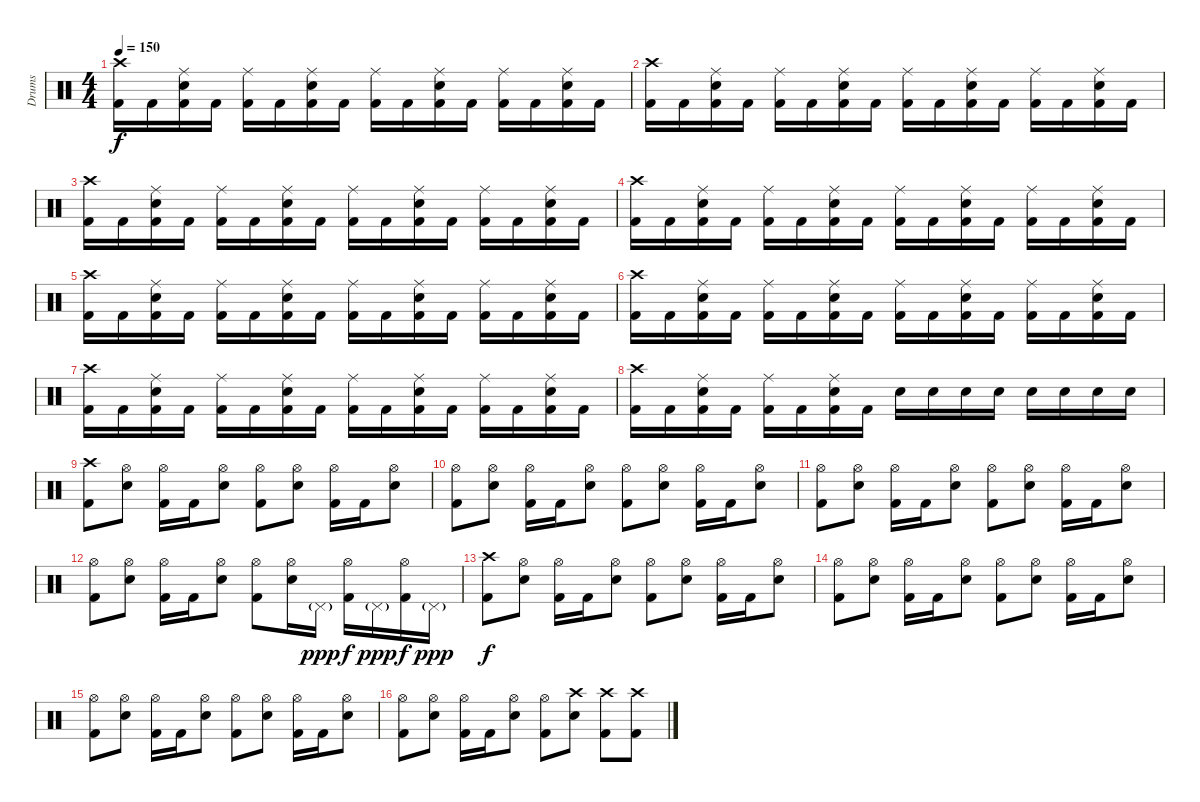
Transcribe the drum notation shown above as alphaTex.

\track ("Drums" "Drums") {instrument percussion}
\staff {score}
\articulation defaults
\ts (4 4)
\tempo 150
\clef neutral
\ks c
("Crash high (hit)" "Kick (hit) 2").16{dy f} "Kick (hit) 2".16 ("Ride (middle)" "Electric Snare (hit)" "Kick (hit) 2").16 "Kick (hit) 2".16 ("Ride (middle)" "Kick (hit) 2").16 "Kick (hit) 2".16 ("Ride (middle)" "Electric Snare (hit)" "Kick (hit) 2").16 "Kick (hit) 2".16 ("Ride (middle)" "Kick (hit) 2").16 "Kick (hit) 2".16 ("Ride (middle)" "Electric Snare (hit)" "Kick (hit) 2").16 "Kick (hit) 2".16 ("Ride (middle)" "Kick (hit) 2").16 "Kick (hit) 2".16 ("Ride (middle)" "Electric Snare (hit)" "Kick (hit) 2").16 "Kick (hit) 2".16 |
("Crash high (hit)" "Kick (hit) 2").16 "Kick (hit) 2".16 ("Ride (middle)" "Electric Snare (hit)" "Kick (hit) 2").16 "Kick (hit) 2".16 ("Ride (middle)" "Kick (hit) 2").16 "Kick (hit) 2".16 ("Ride (middle)" "Electric Snare (hit)" "Kick (hit) 2").16 "Kick (hit) 2".16 ("Ride (middle)" "Kick (hit) 2").16 "Kick (hit) 2".16 ("Ride (middle)" "Electric Snare (hit)" "Kick (hit) 2").16 "Kick (hit) 2".16 ("Ride (middle)" "Kick (hit) 2").16 "Kick (hit) 2".16 ("Ride (middle)" "Electric Snare (hit)" "Kick (hit) 2").16 "Kick (hit) 2".16 |
("Crash high (hit)" "Kick (hit) 2").16 "Kick (hit) 2".16 ("Ride (middle)" "Electric Snare (hit)" "Kick (hit) 2").16 "Kick (hit) 2".16 ("Ride (middle)" "Kick (hit) 2").16 "Kick (hit) 2".16 ("Ride (middle)" "Electric Snare (hit)" "Kick (hit) 2").16 "Kick (hit) 2".16 ("Ride (middle)" "Kick (hit) 2").16 "Kick (hit) 2".16 ("Ride (middle)" "Electric Snare (hit)" "Kick (hit) 2").16 "Kick (hit) 2".16 ("Ride (middle)" "Kick (hit) 2").16 "Kick (hit) 2".16 ("Ride (middle)" "Electric Snare (hit)" "Kick (hit) 2").16 "Kick (hit) 2".16 |
("Crash high (hit)" "Kick (hit) 2").16 "Kick (hit) 2".16 ("Ride (middle)" "Electric Snare (hit)" "Kick (hit) 2").16 "Kick (hit) 2".16 ("Ride (middle)" "Kick (hit) 2").16 "Kick (hit) 2".16 ("Ride (middle)" "Electric Snare (hit)" "Kick (hit) 2").16 "Kick (hit) 2".16 ("Ride (middle)" "Kick (hit) 2").16 "Kick (hit) 2".16 ("Ride (middle)" "Electric Snare (hit)" "Kick (hit) 2").16 "Kick (hit) 2".16 ("Ride (middle)" "Kick (hit) 2").16 "Kick (hit) 2".16 ("Ride (middle)" "Electric Snare (hit)" "Kick (hit) 2").16 "Kick (hit) 2".16 |
("Crash high (hit)" "Kick (hit) 2").16 "Kick (hit) 2".16 ("Ride (middle)" "Electric Snare (hit)" "Kick (hit) 2").16 "Kick (hit) 2".16 ("Ride (middle)" "Kick (hit) 2").16 "Kick (hit) 2".16 ("Ride (middle)" "Electric Snare (hit)" "Kick (hit) 2").16 "Kick (hit) 2".16 ("Ride (middle)" "Kick (hit) 2").16 "Kick (hit) 2".16 ("Ride (middle)" "Electric Snare (hit)" "Kick (hit) 2").16 "Kick (hit) 2".16 ("Ride (middle)" "Kick (hit) 2").16 "Kick (hit) 2".16 ("Ride (middle)" "Electric Snare (hit)" "Kick (hit) 2").16 "Kick (hit) 2".16 |
("Crash high (hit)" "Kick (hit) 2").16 "Kick (hit) 2".16 ("Ride (middle)" "Electric Snare (hit)" "Kick (hit) 2").16 "Kick (hit) 2".16 ("Ride (middle)" "Kick (hit) 2").16 "Kick (hit) 2".16 ("Ride (middle)" "Electric Snare (hit)" "Kick (hit) 2").16 "Kick (hit) 2".16 ("Ride (middle)" "Kick (hit) 2").16 "Kick (hit) 2".16 ("Ride (middle)" "Electric Snare (hit)" "Kick (hit) 2").16 "Kick (hit) 2".16 ("Ride (middle)" "Kick (hit) 2").16 "Kick (hit) 2".16 ("Ride (middle)" "Electric Snare (hit)" "Kick (hit) 2").16 "Kick (hit) 2".16 |
("Crash high (hit)" "Kick (hit) 2").16 "Kick (hit) 2".16 ("Ride (middle)" "Electric Snare (hit)" "Kick (hit) 2").16 "Kick (hit) 2".16 ("Ride (middle)" "Kick (hit) 2").16 "Kick (hit) 2".16 ("Ride (middle)" "Electric Snare (hit)" "Kick (hit) 2").16 "Kick (hit) 2".16 ("Ride (middle)" "Kick (hit) 2").16 "Kick (hit) 2".16 ("Ride (middle)" "Electric Snare (hit)" "Kick (hit) 2").16 "Kick (hit) 2".16 ("Ride (middle)" "Kick (hit) 2").16 "Kick (hit) 2".16 ("Ride (middle)" "Electric Snare (hit)" "Kick (hit) 2").16 "Kick (hit) 2".16 |
("Crash high (hit)" "Kick (hit) 2").16 "Kick (hit) 2".16 ("Ride (middle)" "Electric Snare (hit)" "Kick (hit) 2").16 "Kick (hit) 2".16 ("Ride (middle)" "Kick (hit) 2").16 "Kick (hit) 2".16 ("Ride (middle)" "Electric Snare (hit)" "Kick (hit) 2").16 "Kick (hit) 2".16 "Electric Snare (hit)".16 "Electric Snare (hit)".16 "Electric Snare (hit)".16 "Electric Snare (hit)".16 "Electric Snare (hit)".16 "Electric Snare (hit)".16 "Electric Snare (hit)".16 "Electric Snare (hit)".16 |
("Crash high (hit)" "Kick (hit) 2").8 ("Hi-Hat (open)" "Electric Snare (hit)").8 ("Hi-Hat (open)" "Kick (hit) 2").16 "Kick (hit) 2".16 ("Hi-Hat (open)" "Electric Snare (hit)").8 ("Hi-Hat (open)" "Kick (hit) 2").8 ("Hi-Hat (open)" "Electric Snare (hit)").8 ("Hi-Hat (open)" "Kick (hit) 2").16 "Kick (hit) 2".16 ("Hi-Hat (open)" "Electric Snare (hit)").8 |
("Hi-Hat (open)" "Kick (hit) 2").8 ("Hi-Hat (open)" "Electric Snare (hit)").8 ("Hi-Hat (open)" "Kick (hit) 2").16 "Kick (hit) 2".16 ("Hi-Hat (open)" "Electric Snare (hit)").8 ("Hi-Hat (open)" "Kick (hit) 2").8 ("Hi-Hat (open)" "Electric Snare (hit)").8 ("Hi-Hat (open)" "Kick (hit) 2").16 "Kick (hit) 2".16 ("Hi-Hat (open)" "Electric Snare (hit)").8 |
("Hi-Hat (open)" "Kick (hit) 2").8 ("Hi-Hat (open)" "Electric Snare (hit)").8 ("Hi-Hat (open)" "Kick (hit) 2").16 "Kick (hit) 2".16 ("Hi-Hat (open)" "Electric Snare (hit)").8 ("Hi-Hat (open)" "Kick (hit) 2").8 ("Hi-Hat (open)" "Electric Snare (hit)").8 ("Hi-Hat (open)" "Kick (hit) 2").16 "Kick (hit) 2".16 ("Hi-Hat (open)" "Electric Snare (hit)").8 |
("Hi-Hat (open)" "Kick (hit) 2").8 ("Hi-Hat (open)" "Electric Snare (hit)").8 ("Hi-Hat (open)" "Kick (hit) 2").16 "Kick (hit) 2".16 ("Hi-Hat (open)" "Electric Snare (hit)").8 ("Hi-Hat (open)" "Kick (hit) 2").8 ("Hi-Hat (open)" "Electric Snare (hit)").16 "Pedal Hi-Hat (hit)"{g}.16{dy ppp} ("Hi-Hat (open)" "Kick (hit) 2").16{dy f} "Pedal Hi-Hat (hit)"{g}.16{dy ppp} ("Hi-Hat (open)" "Kick (hit) 2").16{dy f} "Pedal Hi-Hat (hit)"{g}.16{dy ppp} |
("Crash high (hit)" "Kick (hit) 2").8{dy f} ("Hi-Hat (open)" "Electric Snare (hit)").8 ("Hi-Hat (open)" "Kick (hit) 2").16 "Kick (hit) 2".16 ("Hi-Hat (open)" "Electric Snare (hit)").8 ("Hi-Hat (open)" "Kick (hit) 2").8 ("Hi-Hat (open)" "Electric Snare (hit)").8 ("Hi-Hat (open)" "Kick (hit) 2").16 "Kick (hit) 2".16 ("Hi-Hat (open)" "Electric Snare (hit)").8 |
("Hi-Hat (open)" "Kick (hit) 2").8 ("Hi-Hat (open)" "Electric Snare (hit)").8 ("Hi-Hat (open)" "Kick (hit) 2").16 "Kick (hit) 2".16 ("Hi-Hat (open)" "Electric Snare (hit)").8 ("Hi-Hat (open)" "Kick (hit) 2").8 ("Hi-Hat (open)" "Electric Snare (hit)").8 ("Hi-Hat (open)" "Kick (hit) 2").16 "Kick (hit) 2".16 ("Hi-Hat (open)" "Electric Snare (hit)").8 |
("Hi-Hat (open)" "Kick (hit) 2").8 ("Hi-Hat (open)" "Electric Snare (hit)").8 ("Hi-Hat (open)" "Kick (hit) 2").16 "Kick (hit) 2".16 ("Hi-Hat (open)" "Electric Snare (hit)").8 ("Hi-Hat (open)" "Kick (hit) 2").8 ("Hi-Hat (open)" "Electric Snare (hit)").8 ("Hi-Hat (open)" "Kick (hit) 2").16 "Kick (hit) 2".16 ("Hi-Hat (open)" "Electric Snare (hit)").8 |
("Hi-Hat (open)" "Kick (hit) 2").8 ("Hi-Hat (open)" "Electric Snare (hit)").8 ("Hi-Hat (open)" "Kick (hit) 2").16 "Kick (hit) 2".16 ("Hi-Hat (open)" "Electric Snare (hit)").8 ("Hi-Hat (open)" "Kick (hit) 2").8 ("Crash high (hit)" "Electric Snare (hit)").8 ("Crash high (hit)" "Kick (hit) 2").8 ("Crash high (hit)" "Kick (hit) 2").8
